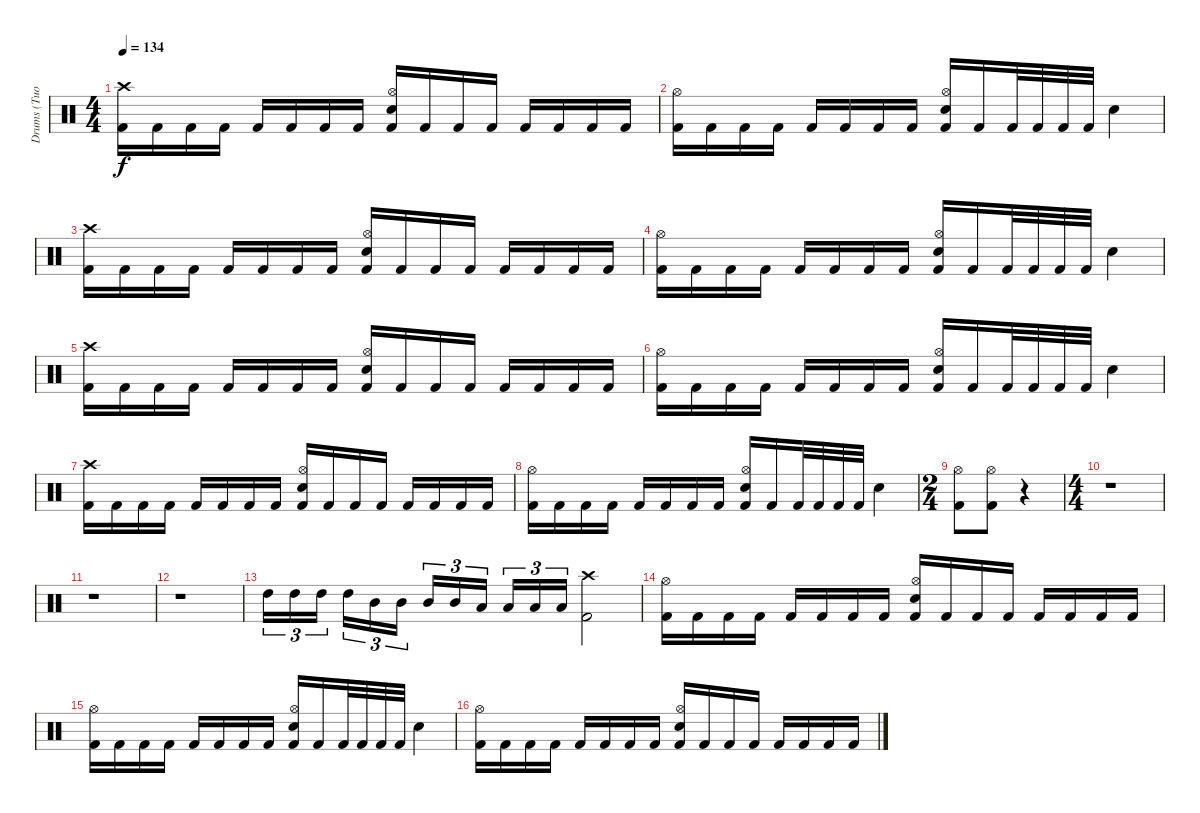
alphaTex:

\track ("Drums (Tuomo Lassila)" "Drums (Tuo") {instrument percussion}
\staff {score}
\articulation defaults
\ts (4 4)
\tempo 134
\clef neutral
\ks c
("Crash high (hit)" "Kick (hit) 2").16{dy f volume 3} "Kick (hit) 2".16{volume 16} "Kick (hit) 2".16 "Kick (hit) 2".16 "Kick (hit) 2".16 "Kick (hit) 2".16 "Kick (hit) 2".16 "Kick (hit) 2".16 ("Hi-Hat (open)" "Snare (hit) 2" "Kick (hit) 2").16 "Kick (hit) 2".16 "Kick (hit) 2".16 "Kick (hit) 2".16 "Kick (hit) 2".16 "Kick (hit) 2".16 "Kick (hit) 2".16 "Kick (hit) 2".16 |
("Hi-Hat (open)" "Kick (hit) 2").16 "Kick (hit) 2".16 "Kick (hit) 2".16 "Kick (hit) 2".16 "Kick (hit) 2".16 "Kick (hit) 2".16 "Kick (hit) 2".16 "Kick (hit) 2".16 ("Hi-Hat (open)" "Snare (hit) 2" "Kick (hit) 2").16 "Kick (hit) 2".16 "Kick (hit) 2".32 "Kick (hit) 2".32 "Kick (hit) 2".32 "Kick (hit) 2".32 "Snare (hit) 2".4 |
("Crash high (hit)" "Kick (hit) 2").16 "Kick (hit) 2".16 "Kick (hit) 2".16 "Kick (hit) 2".16 "Kick (hit) 2".16 "Kick (hit) 2".16 "Kick (hit) 2".16 "Kick (hit) 2".16 ("Hi-Hat (open)" "Snare (hit) 2" "Kick (hit) 2").16 "Kick (hit) 2".16 "Kick (hit) 2".16 "Kick (hit) 2".16 "Kick (hit) 2".16 "Kick (hit) 2".16 "Kick (hit) 2".16 "Kick (hit) 2".16 |
("Hi-Hat (open)" "Kick (hit) 2").16 "Kick (hit) 2".16 "Kick (hit) 2".16 "Kick (hit) 2".16 "Kick (hit) 2".16 "Kick (hit) 2".16 "Kick (hit) 2".16 "Kick (hit) 2".16 ("Hi-Hat (open)" "Snare (hit) 2" "Kick (hit) 2").16 "Kick (hit) 2".16 "Kick (hit) 2".32 "Kick (hit) 2".32 "Kick (hit) 2".32 "Kick (hit) 2".32 "Snare (hit) 2".4 |
("Crash high (hit)" "Kick (hit) 2").16 "Kick (hit) 2".16 "Kick (hit) 2".16 "Kick (hit) 2".16 "Kick (hit) 2".16 "Kick (hit) 2".16 "Kick (hit) 2".16 "Kick (hit) 2".16 ("Hi-Hat (open)" "Snare (hit) 2" "Kick (hit) 2").16 "Kick (hit) 2".16 "Kick (hit) 2".16 "Kick (hit) 2".16 "Kick (hit) 2".16 "Kick (hit) 2".16 "Kick (hit) 2".16 "Kick (hit) 2".16 |
("Hi-Hat (open)" "Kick (hit) 2").16 "Kick (hit) 2".16 "Kick (hit) 2".16 "Kick (hit) 2".16 "Kick (hit) 2".16 "Kick (hit) 2".16 "Kick (hit) 2".16 "Kick (hit) 2".16 ("Hi-Hat (open)" "Snare (hit) 2" "Kick (hit) 2").16 "Kick (hit) 2".16 "Kick (hit) 2".32 "Kick (hit) 2".32 "Kick (hit) 2".32 "Kick (hit) 2".32 "Snare (hit) 2".4 |
("Crash high (hit)" "Kick (hit) 2").16 "Kick (hit) 2".16 "Kick (hit) 2".16 "Kick (hit) 2".16 "Kick (hit) 2".16 "Kick (hit) 2".16 "Kick (hit) 2".16 "Kick (hit) 2".16 ("Hi-Hat (open)" "Snare (hit) 2" "Kick (hit) 2").16 "Kick (hit) 2".16 "Kick (hit) 2".16 "Kick (hit) 2".16 "Kick (hit) 2".16 "Kick (hit) 2".16 "Kick (hit) 2".16 "Kick (hit) 2".16 |
("Hi-Hat (open)" "Kick (hit) 2").16 "Kick (hit) 2".16 "Kick (hit) 2".16 "Kick (hit) 2".16 "Kick (hit) 2".16 "Kick (hit) 2".16 "Kick (hit) 2".16 "Kick (hit) 2".16 ("Hi-Hat (open)" "Snare (hit) 2" "Kick (hit) 2").16 "Kick (hit) 2".16 "Kick (hit) 2".32 "Kick (hit) 2".32 "Kick (hit) 2".32 "Kick (hit) 2".32 "Snare (hit) 2".4 |
\ts (2 4)
("Hi-Hat (open)" "Kick (hit) 2").8 ("Hi-Hat (open)" "Kick (hit) 2").8 r.4 |
\ts (4 4)
r.1 |
r.1 |
r.1 |
"High Tom (hit)".16{tu (3 2)} "High Tom (hit)".16{tu (3 2)} "High Tom (hit)".16{tu (3 2)} "High Tom (hit)".16{tu (3 2)} "Mid Tom (hit)".16{tu (3 2)} "Mid Tom (hit)".16{tu (3 2)} "Mid Tom (hit)".16{tu (3 2)} "Mid Tom (hit)".16{tu (3 2)} "Low Tom (hit)".16{tu (3 2)} "Low Tom (hit)".16{tu (3 2)} "Low Tom (hit)".16{tu (3 2)} "Low Tom (hit)".16{tu (3 2)} ("Crash high (hit)" "Kick (hit) 2").2 |
("Hi-Hat (open)" "Kick (hit) 2").16 "Kick (hit) 2".16 "Kick (hit) 2".16 "Kick (hit) 2".16 "Kick (hit) 2".16 "Kick (hit) 2".16 "Kick (hit) 2".16 "Kick (hit) 2".16 ("Hi-Hat (open)" "Snare (hit) 2" "Kick (hit) 2").16 "Kick (hit) 2".16 "Kick (hit) 2".16 "Kick (hit) 2".16 "Kick (hit) 2".16 "Kick (hit) 2".16 "Kick (hit) 2".16 "Kick (hit) 2".16 |
("Hi-Hat (open)" "Kick (hit) 2").16 "Kick (hit) 2".16 "Kick (hit) 2".16 "Kick (hit) 2".16 "Kick (hit) 2".16 "Kick (hit) 2".16 "Kick (hit) 2".16 "Kick (hit) 2".16 ("Hi-Hat (open)" "Snare (hit) 2" "Kick (hit) 2").16 "Kick (hit) 2".16 "Kick (hit) 2".32 "Kick (hit) 2".32 "Kick (hit) 2".32 "Kick (hit) 2".32 "Snare (hit) 2".4 |
("Hi-Hat (open)" "Kick (hit) 2").16 "Kick (hit) 2".16 "Kick (hit) 2".16 "Kick (hit) 2".16 "Kick (hit) 2".16 "Kick (hit) 2".16 "Kick (hit) 2".16 "Kick (hit) 2".16 ("Hi-Hat (open)" "Snare (hit) 2" "Kick (hit) 2").16 "Kick (hit) 2".16 "Kick (hit) 2".16 "Kick (hit) 2".16 "Kick (hit) 2".16 "Kick (hit) 2".16 "Kick (hit) 2".16 "Kick (hit) 2".16
